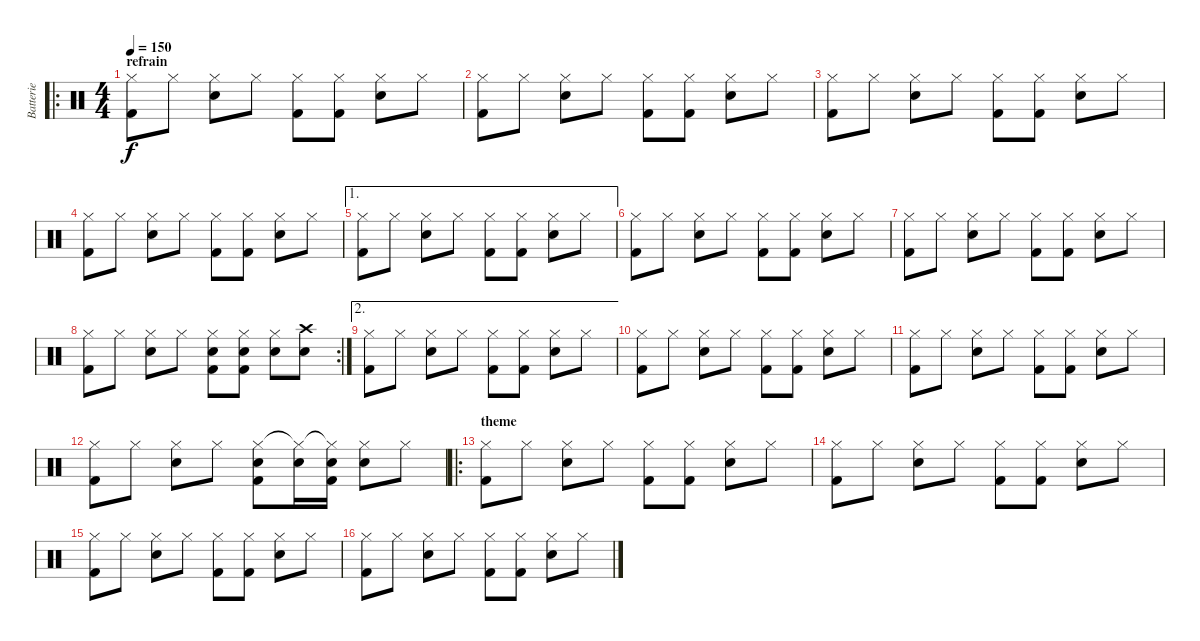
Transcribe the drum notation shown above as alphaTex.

\track ("Batterie" "Batterie") {instrument percussion}
\staff {score}
\articulation defaults
\ro
\ts (4 4)
\section ("" "refrain")
\tempo 150
\clef neutral
\ks c
("Hi-Hat (closed)" "Kick (hit) 2").8{dy f} "Hi-Hat (closed)".8 ("Hi-Hat (closed)" "Electric Snare (hit)").8 "Hi-Hat (closed)".8 ("Hi-Hat (closed)" "Kick (hit) 2").8 ("Hi-Hat (closed)" "Kick (hit) 2").8 ("Hi-Hat (closed)" "Electric Snare (hit)").8 "Hi-Hat (closed)".8 |
("Hi-Hat (closed)" "Kick (hit) 2").8 "Hi-Hat (closed)".8 ("Hi-Hat (closed)" "Electric Snare (hit)").8 "Hi-Hat (closed)".8 ("Hi-Hat (closed)" "Kick (hit) 2").8 ("Hi-Hat (closed)" "Kick (hit) 2").8 ("Hi-Hat (closed)" "Electric Snare (hit)").8 "Hi-Hat (closed)".8 |
("Hi-Hat (closed)" "Kick (hit) 2").8 "Hi-Hat (closed)".8 ("Hi-Hat (closed)" "Electric Snare (hit)").8 "Hi-Hat (closed)".8 ("Hi-Hat (closed)" "Kick (hit) 2").8 ("Hi-Hat (closed)" "Kick (hit) 2").8 ("Hi-Hat (closed)" "Electric Snare (hit)").8 "Hi-Hat (closed)".8 |
("Hi-Hat (closed)" "Kick (hit) 2").8 "Hi-Hat (closed)".8 ("Hi-Hat (closed)" "Electric Snare (hit)").8 "Hi-Hat (closed)".8 ("Hi-Hat (closed)" "Kick (hit) 2").8 ("Hi-Hat (closed)" "Kick (hit) 2").8 ("Hi-Hat (closed)" "Electric Snare (hit)").8 "Hi-Hat (closed)".8 |
\ae 1
("Hi-Hat (closed)" "Kick (hit) 2").8 "Hi-Hat (closed)".8 ("Hi-Hat (closed)" "Electric Snare (hit)").8 "Hi-Hat (closed)".8 ("Hi-Hat (closed)" "Kick (hit) 2").8 ("Hi-Hat (closed)" "Kick (hit) 2").8 ("Hi-Hat (closed)" "Electric Snare (hit)").8 "Hi-Hat (closed)".8 |
("Hi-Hat (closed)" "Kick (hit) 2").8 "Hi-Hat (closed)".8 ("Hi-Hat (closed)" "Electric Snare (hit)").8 "Hi-Hat (closed)".8 ("Hi-Hat (closed)" "Kick (hit) 2").8 ("Hi-Hat (closed)" "Kick (hit) 2").8 ("Hi-Hat (closed)" "Electric Snare (hit)").8 "Hi-Hat (closed)".8 |
("Hi-Hat (closed)" "Kick (hit) 2").8 "Hi-Hat (closed)".8 ("Hi-Hat (closed)" "Electric Snare (hit)").8 "Hi-Hat (closed)".8 ("Hi-Hat (closed)" "Kick (hit) 2").8 ("Hi-Hat (closed)" "Kick (hit) 2").8 ("Hi-Hat (closed)" "Electric Snare (hit)").8 "Hi-Hat (closed)".8 |
\rc 2
("Hi-Hat (closed)" "Kick (hit) 2").8 "Hi-Hat (closed)".8 ("Hi-Hat (closed)" "Electric Snare (hit)").8 "Hi-Hat (closed)".8 ("Hi-Hat (closed)" "Electric Snare (hit)" "Kick (hit) 2").8 ("Hi-Hat (closed)" "Electric Snare (hit)" "Kick (hit) 2").8 ("Hi-Hat (closed)" "Electric Snare (hit)").8 ("Crash high (hit)" "Electric Snare (hit)").8 |
\ae 2
("Hi-Hat (closed)" "Kick (hit) 2").8 "Hi-Hat (closed)".8 ("Hi-Hat (closed)" "Electric Snare (hit)").8 "Hi-Hat (closed)".8 ("Hi-Hat (closed)" "Kick (hit) 2").8 ("Hi-Hat (closed)" "Kick (hit) 2").8 ("Hi-Hat (closed)" "Electric Snare (hit)").8 "Hi-Hat (closed)".8 |
("Hi-Hat (closed)" "Kick (hit) 2").8 "Hi-Hat (closed)".8 ("Hi-Hat (closed)" "Electric Snare (hit)").8 "Hi-Hat (closed)".8 ("Hi-Hat (closed)" "Kick (hit) 2").8 ("Hi-Hat (closed)" "Kick (hit) 2").8 ("Hi-Hat (closed)" "Electric Snare (hit)").8 "Hi-Hat (closed)".8 |
("Hi-Hat (closed)" "Kick (hit) 2").8 "Hi-Hat (closed)".8 ("Hi-Hat (closed)" "Electric Snare (hit)").8 "Hi-Hat (closed)".8 ("Hi-Hat (closed)" "Kick (hit) 2").8 ("Hi-Hat (closed)" "Kick (hit) 2").8 ("Hi-Hat (closed)" "Electric Snare (hit)").8 "Hi-Hat (closed)".8 |
("Hi-Hat (closed)" "Kick (hit) 2").8 "Hi-Hat (closed)".8 ("Hi-Hat (closed)" "Electric Snare (hit)").8 "Hi-Hat (closed)".8 ("Hi-Hat (closed)" "Electric Snare (hit)" "Kick (hit) 2").8 ("Hi-Hat (closed)"{t} "Electric Snare (hit)").16 ("Hi-Hat (closed)"{t} "Electric Snare (hit)" "Kick (hit) 2").16 ("Hi-Hat (closed)" "Electric Snare (hit)").8 "Hi-Hat (closed)".8 |
\ro
\section ("" "theme")
("Hi-Hat (closed)" "Kick (hit) 2").8 "Hi-Hat (closed)".8 ("Hi-Hat (closed)" "Electric Snare (hit)").8 "Hi-Hat (closed)".8 ("Hi-Hat (closed)" "Kick (hit) 2").8 ("Hi-Hat (closed)" "Kick (hit) 2").8 ("Hi-Hat (closed)" "Electric Snare (hit)").8 "Hi-Hat (closed)".8 |
("Hi-Hat (closed)" "Kick (hit) 2").8 "Hi-Hat (closed)".8 ("Hi-Hat (closed)" "Electric Snare (hit)").8 "Hi-Hat (closed)".8 ("Hi-Hat (closed)" "Kick (hit) 2").8 ("Hi-Hat (closed)" "Kick (hit) 2").8 ("Hi-Hat (closed)" "Electric Snare (hit)").8 "Hi-Hat (closed)".8 |
("Hi-Hat (closed)" "Kick (hit) 2").8 "Hi-Hat (closed)".8 ("Hi-Hat (closed)" "Electric Snare (hit)").8 "Hi-Hat (closed)".8 ("Hi-Hat (closed)" "Kick (hit) 2").8 ("Hi-Hat (closed)" "Kick (hit) 2").8 ("Hi-Hat (closed)" "Electric Snare (hit)").8 "Hi-Hat (closed)".8 |
("Hi-Hat (closed)" "Kick (hit) 2").8 "Hi-Hat (closed)".8 ("Hi-Hat (closed)" "Electric Snare (hit)").8 "Hi-Hat (closed)".8 ("Hi-Hat (closed)" "Kick (hit) 2").8 ("Hi-Hat (closed)" "Kick (hit) 2").8 ("Hi-Hat (closed)" "Electric Snare (hit)").8 "Hi-Hat (closed)".8
